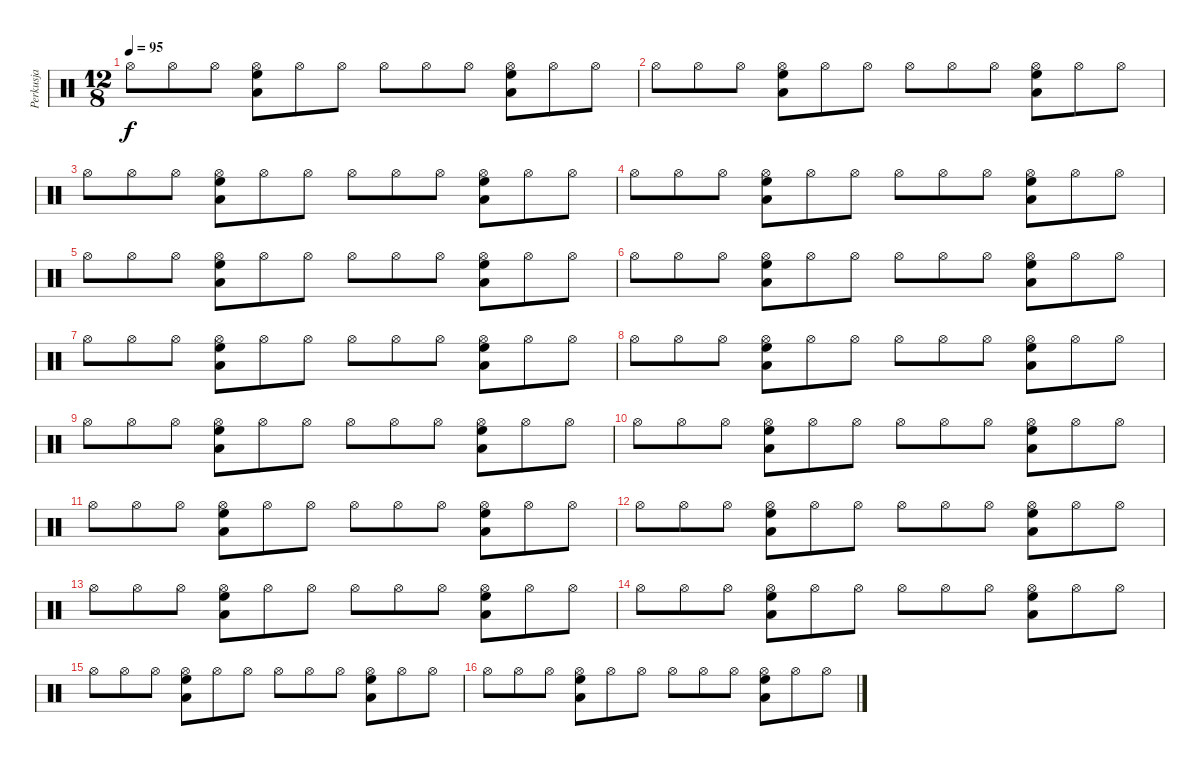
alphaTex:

\track ("Perkusja" "Perkusja") {instrument percussion}
\staff {score}
\articulation defaults
\ts (12 8)
\tempo 95
\clef neutral
\ks c "Hi-Hat (open)".8{dy f} "Hi-Hat (open)".8 "Hi-Hat (open)".8
("Hi-Hat (open)" "Low Tom (hit)" "High Floor Tom (hit)").8 "Hi-Hat (open)".8 "Hi-Hat (open)".8 "Hi-Hat (open)".8 "Hi-Hat (open)".8 "Hi-Hat (open)".8 ("Hi-Hat (open)" "Low Tom (hit)" "High Floor Tom (hit)").8 "Hi-Hat (open)".8 "Hi-Hat (open)".8 |
"Hi-Hat (open)".8 "Hi-Hat (open)".8 "Hi-Hat (open)".8 ("Hi-Hat (open)" "Low Tom (hit)" "High Floor Tom (hit)").8 "Hi-Hat (open)".8 "Hi-Hat (open)".8 "Hi-Hat (open)".8 "Hi-Hat (open)".8 "Hi-Hat (open)".8 ("Hi-Hat (open)" "Low Tom (hit)" "High Floor Tom (hit)").8 "Hi-Hat (open)".8 "Hi-Hat (open)".8 |
"Hi-Hat (open)".8 "Hi-Hat (open)".8 "Hi-Hat (open)".8 ("Hi-Hat (open)" "Low Tom (hit)" "High Floor Tom (hit)").8 "Hi-Hat (open)".8 "Hi-Hat (open)".8 "Hi-Hat (open)".8 "Hi-Hat (open)".8 "Hi-Hat (open)".8 ("Hi-Hat (open)" "Low Tom (hit)" "High Floor Tom (hit)").8 "Hi-Hat (open)".8 "Hi-Hat (open)".8 |
"Hi-Hat (open)".8 "Hi-Hat (open)".8 "Hi-Hat (open)".8 ("Hi-Hat (open)" "Low Tom (hit)" "High Floor Tom (hit)").8 "Hi-Hat (open)".8 "Hi-Hat (open)".8 "Hi-Hat (open)".8 "Hi-Hat (open)".8 "Hi-Hat (open)".8 ("Hi-Hat (open)" "Low Tom (hit)" "High Floor Tom (hit)").8 "Hi-Hat (open)".8 "Hi-Hat (open)".8 |
"Hi-Hat (open)".8 "Hi-Hat (open)".8 "Hi-Hat (open)".8 ("Hi-Hat (open)" "Low Tom (hit)" "High Floor Tom (hit)").8 "Hi-Hat (open)".8 "Hi-Hat (open)".8 "Hi-Hat (open)".8 "Hi-Hat (open)".8 "Hi-Hat (open)".8 ("Hi-Hat (open)" "Low Tom (hit)" "High Floor Tom (hit)").8 "Hi-Hat (open)".8 "Hi-Hat (open)".8 |
"Hi-Hat (open)".8 "Hi-Hat (open)".8 "Hi-Hat (open)".8 ("Hi-Hat (open)" "Low Tom (hit)" "High Floor Tom (hit)").8 "Hi-Hat (open)".8 "Hi-Hat (open)".8 "Hi-Hat (open)".8 "Hi-Hat (open)".8 "Hi-Hat (open)".8 ("Hi-Hat (open)" "Low Tom (hit)" "High Floor Tom (hit)").8 "Hi-Hat (open)".8 "Hi-Hat (open)".8 |
"Hi-Hat (open)".8 "Hi-Hat (open)".8 "Hi-Hat (open)".8 ("Hi-Hat (open)" "Low Tom (hit)" "High Floor Tom (hit)").8 "Hi-Hat (open)".8 "Hi-Hat (open)".8 "Hi-Hat (open)".8 "Hi-Hat (open)".8 "Hi-Hat (open)".8 ("Hi-Hat (open)" "Low Tom (hit)" "High Floor Tom (hit)").8 "Hi-Hat (open)".8 "Hi-Hat (open)".8 |
"Hi-Hat (open)".8 "Hi-Hat (open)".8 "Hi-Hat (open)".8 ("Hi-Hat (open)" "Low Tom (hit)" "High Floor Tom (hit)").8 "Hi-Hat (open)".8 "Hi-Hat (open)".8 "Hi-Hat (open)".8 "Hi-Hat (open)".8 "Hi-Hat (open)".8 ("Hi-Hat (open)" "Low Tom (hit)" "High Floor Tom (hit)").8 "Hi-Hat (open)".8 "Hi-Hat (open)".8 |
"Hi-Hat (open)".8 "Hi-Hat (open)".8 "Hi-Hat (open)".8 ("Hi-Hat (open)" "Low Tom (hit)" "High Floor Tom (hit)").8 "Hi-Hat (open)".8 "Hi-Hat (open)".8 "Hi-Hat (open)".8 "Hi-Hat (open)".8 "Hi-Hat (open)".8 ("Hi-Hat (open)" "Low Tom (hit)" "High Floor Tom (hit)").8 "Hi-Hat (open)".8 "Hi-Hat (open)".8 |
"Hi-Hat (open)".8 "Hi-Hat (open)".8 "Hi-Hat (open)".8 ("Hi-Hat (open)" "Low Tom (hit)" "High Floor Tom (hit)").8 "Hi-Hat (open)".8 "Hi-Hat (open)".8 "Hi-Hat (open)".8 "Hi-Hat (open)".8 "Hi-Hat (open)".8 ("Hi-Hat (open)" "Low Tom (hit)" "High Floor Tom (hit)").8 "Hi-Hat (open)".8 "Hi-Hat (open)".8 |
"Hi-Hat (open)".8 "Hi-Hat (open)".8 "Hi-Hat (open)".8 ("Hi-Hat (open)" "Low Tom (hit)" "High Floor Tom (hit)").8 "Hi-Hat (open)".8 "Hi-Hat (open)".8 "Hi-Hat (open)".8 "Hi-Hat (open)".8 "Hi-Hat (open)".8 ("Hi-Hat (open)" "Low Tom (hit)" "High Floor Tom (hit)").8 "Hi-Hat (open)".8 "Hi-Hat (open)".8 |
"Hi-Hat (open)".8 "Hi-Hat (open)".8 "Hi-Hat (open)".8 ("Hi-Hat (open)" "Low Tom (hit)" "High Floor Tom (hit)").8 "Hi-Hat (open)".8 "Hi-Hat (open)".8 "Hi-Hat (open)".8 "Hi-Hat (open)".8 "Hi-Hat (open)".8 ("Hi-Hat (open)" "Low Tom (hit)" "High Floor Tom (hit)").8 "Hi-Hat (open)".8 "Hi-Hat (open)".8 |
"Hi-Hat (open)".8 "Hi-Hat (open)".8 "Hi-Hat (open)".8 ("Hi-Hat (open)" "Low Tom (hit)" "High Floor Tom (hit)").8 "Hi-Hat (open)".8 "Hi-Hat (open)".8 "Hi-Hat (open)".8 "Hi-Hat (open)".8 "Hi-Hat (open)".8 ("Hi-Hat (open)" "Low Tom (hit)" "High Floor Tom (hit)").8 "Hi-Hat (open)".8 "Hi-Hat (open)".8 |
"Hi-Hat (open)".8 "Hi-Hat (open)".8 "Hi-Hat (open)".8 ("Hi-Hat (open)" "Low Tom (hit)" "High Floor Tom (hit)").8 "Hi-Hat (open)".8 "Hi-Hat (open)".8 "Hi-Hat (open)".8 "Hi-Hat (open)".8 "Hi-Hat (open)".8 ("Hi-Hat (open)" "Low Tom (hit)" "High Floor Tom (hit)").8 "Hi-Hat (open)".8 "Hi-Hat (open)".8 |
"Hi-Hat (open)".8 "Hi-Hat (open)".8 "Hi-Hat (open)".8 ("Hi-Hat (open)" "Low Tom (hit)" "High Floor Tom (hit)").8 "Hi-Hat (open)".8 "Hi-Hat (open)".8 "Hi-Hat (open)".8 "Hi-Hat (open)".8 "Hi-Hat (open)".8 ("Hi-Hat (open)" "Low Tom (hit)" "High Floor Tom (hit)").8 "Hi-Hat (open)".8 "Hi-Hat (open)".8 |
"Hi-Hat (open)".8 "Hi-Hat (open)".8 "Hi-Hat (open)".8 ("Hi-Hat (open)" "Low Tom (hit)" "High Floor Tom (hit)").8 "Hi-Hat (open)".8 "Hi-Hat (open)".8 "Hi-Hat (open)".8 "Hi-Hat (open)".8 "Hi-Hat (open)".8 ("Hi-Hat (open)" "Low Tom (hit)" "High Floor Tom (hit)").8 "Hi-Hat (open)".8 "Hi-Hat (open)".8
